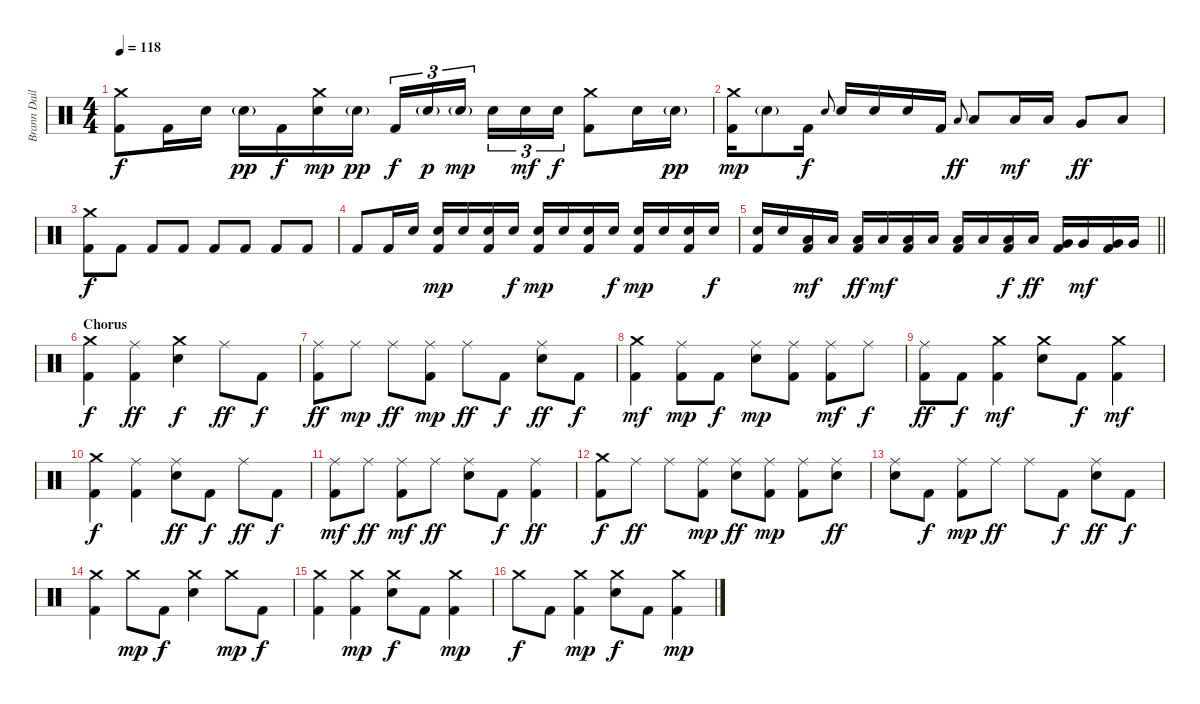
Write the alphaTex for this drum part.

\track ("Brann Dailor - Drums" "Brann Dail") {instrument percussion}
\staff {score}
\articulation defaults
\ts (4 4)
\tempo 118
\clef neutral
\ks c
("Crash medium (hit)" "Kick (hit) 2").8{dy f} "Kick (hit) 2".16 "Electric Snare (hit)".16 "Electric Snare (hit)"{g}.16{dy pp} "Kick (hit) 2".16{dy f} ("Crash medium (hit)" "Electric Snare (hit)").16{dy mp} "Electric Snare (hit)"{g}.16{dy pp} "Kick (hit) 2".16{tu (3 2) dy f} "Electric Snare (hit)"{g}.16{tu (3 2) dy p} "Electric Snare (hit)"{g}.16{tu (3 2) dy mp beam splitsecondary} "Electric Snare (hit)".16{tu (3 2)} "Electric Snare (hit)".16{tu (3 2) dy mf} "Electric Snare (hit)".16{tu (3 2) dy f} ("Crash medium (hit)" "Kick (hit) 2").8 "Electric Snare (hit)".16 "Electric Snare (hit)"{g}.16{dy pp} |
("Crash medium (hit)" "Kick (hit) 2").16{dy mp} "Electric Snare (hit)"{g}.8 "Kick (hit) 2".16{dy f} "Electric Snare (hit)".8{gr onbeat} "Electric Snare (hit)".16 "Electric Snare (hit)".16 "Electric Snare (hit)".16 "Kick (hit) 2".16 "Low Tom (hit)".8{gr onbeat dy ff} "Low Tom (hit)".8 "Low Tom (hit)".16{dy mf} "Low Tom (hit)".16 "Very Low Tom (hit)".8{dy ff} "Low Floor Tom (hit)".8 |
("Crash medium (hit)" "Kick (hit) 2").8{dy f} "Kick (hit) 2".8 "Kick (hit) 2".8 "Kick (hit) 2".8 "Kick (hit) 2".8 "Kick (hit) 2".8 "Kick (hit) 2".8 "Kick (hit) 2".8 |
"Kick (hit) 2".8 "Kick (hit) 2".16 "Electric Snare (hit)".16 ("Electric Snare (hit)" "Kick (hit) 2").16{dy mp} "Electric Snare (hit)".16 ("Electric Snare (hit)" "Kick (hit) 2").16 "Electric Snare (hit)".16{dy f} ("Electric Snare (hit)" "Kick (hit) 2").16{dy mp} "Electric Snare (hit)".16 ("Electric Snare (hit)" "Kick (hit) 2").16 "Electric Snare (hit)".16{dy f} ("Electric Snare (hit)" "Kick (hit) 2").16{dy mp} "Electric Snare (hit)".16 ("Electric Snare (hit)" "Kick (hit) 2").16 "Electric Snare (hit)".16{dy f} |
\barLineRight lightlight
("Electric Snare (hit)" "Kick (hit) 2").16 "Electric Snare (hit)".16 ("Low Tom (hit)" "Kick (hit) 2").16{dy mf} "Low Tom (hit)".16 ("Low Tom (hit)" "Kick (hit) 2").16{dy ff} "Low Tom (hit)".16{dy mf} ("Low Tom (hit)" "Kick (hit) 2").16 "Low Tom (hit)".16 ("Low Tom (hit)" "Kick (hit) 2").16 "Low Tom (hit)".16 ("Low Tom (hit)" "Kick (hit) 2").16{dy f} "Low Tom (hit)".16{dy ff} ("Very Low Tom (hit)" "Kick (hit) 2").16 "Very Low Tom (hit)".16{dy mf} ("Very Low Tom (hit)" "Kick (hit) 2").16 "Very Low Tom (hit)".16 |
\section ("" "Chorus")
("Crash medium (hit)" "Kick (hit) 2").4{dy f} ("Ride (middle)" "Kick (hit) 2").4{dy ff} ("Crash medium (hit)" "Electric Snare (hit)").4{dy f} "Ride (middle)".8{dy ff} "Kick (hit) 2".8{dy f} |
("Ride (middle)" "Kick (hit) 2").8{dy ff} "Ride (middle)".8{dy mp} "Ride (middle)".8{dy ff} ("Ride (middle)" "Kick (hit) 2").8{dy mp} "Ride (middle)".8{dy ff} "Kick (hit) 2".8{dy f} ("Ride (middle)" "Electric Snare (hit)").8{dy ff} "Kick (hit) 2".8{dy f} |
("Crash medium (hit)" "Kick (hit) 2").4{dy mf} ("Ride (middle)" "Kick (hit) 2").8{dy mp} "Kick (hit) 2".8{dy f} ("Ride (middle)" "Electric Snare (hit)").8{dy mp} ("Ride (middle)" "Kick (hit) 2").8 ("Ride (middle)" "Kick (hit) 2").8{dy mf} "Ride (middle)".8{dy f} |
("Ride (middle)" "Kick (hit) 2").8{dy ff} "Kick (hit) 2".8{dy f} ("Crash medium (hit)" "Kick (hit) 2").4{dy mf} ("Crash medium (hit)" "Electric Snare (hit)").8 "Kick (hit) 2".8{dy f} ("Crash medium (hit)" "Kick (hit) 2").4{dy mf} |
("Crash medium (hit)" "Kick (hit) 2").4{dy f} ("Ride (middle)" "Kick (hit) 2").4 ("Ride (middle)" "Electric Snare (hit)").8{dy ff} "Kick (hit) 2".8{dy f} "Ride (middle)".8{dy ff} "Kick (hit) 2".8{dy f} |
("Ride (middle)" "Kick (hit) 2").8{dy mf} "Ride (middle)".8{dy ff} ("Ride (middle)" "Kick (hit) 2").8{dy mf} "Ride (middle)".8{dy ff} ("Ride (middle)" "Electric Snare (hit)").8 "Kick (hit) 2".8{dy f} ("Ride (middle)" "Kick (hit) 2").4{dy ff} |
("Crash medium (hit)" "Kick (hit) 2").8{dy f} "Ride (middle)".8{dy ff} "Ride (middle)".8 ("Ride (middle)" "Kick (hit) 2").8{dy mp} ("Ride (middle)" "Electric Snare (hit)").8{dy ff} ("Ride (middle)" "Kick (hit) 2").8{dy mp} ("Ride (middle)" "Kick (hit) 2").8 ("Ride (middle)" "Electric Snare (hit)").8{dy ff} |
("Ride (middle)" "Electric Snare (hit)").8 "Kick (hit) 2".8{dy f} ("Ride (middle)" "Kick (hit) 2").8{dy mp} "Ride (middle)".8{dy ff} "Ride (middle)".8 "Kick (hit) 2".8{dy f} ("Ride (middle)" "Electric Snare (hit)").8{dy ff} "Kick (hit) 2".8{dy f} |
("Crash medium (hit)" "Kick (hit) 2").4 "Crash medium (hit)".8{dy mp} "Kick (hit) 2".8{dy f} ("Crash medium (hit)" "Electric Snare (hit)").4 "Crash medium (hit)".8{dy mp} "Kick (hit) 2".8{dy f} |
("Crash medium (hit)" "Kick (hit) 2").4 ("Crash medium (hit)" "Kick (hit) 2").4{dy mp} ("Crash medium (hit)" "Electric Snare (hit)").8{dy f} "Kick (hit) 2".8 ("Crash medium (hit)" "Kick (hit) 2").4{dy mp} |
"Crash medium (hit)".8{dy f} "Kick (hit) 2".8 ("Crash medium (hit)" "Kick (hit) 2").4{dy mp} ("Crash medium (hit)" "Electric Snare (hit)").8{dy f} "Kick (hit) 2".8 ("Crash medium (hit)" "Kick (hit) 2").4{dy mp}
